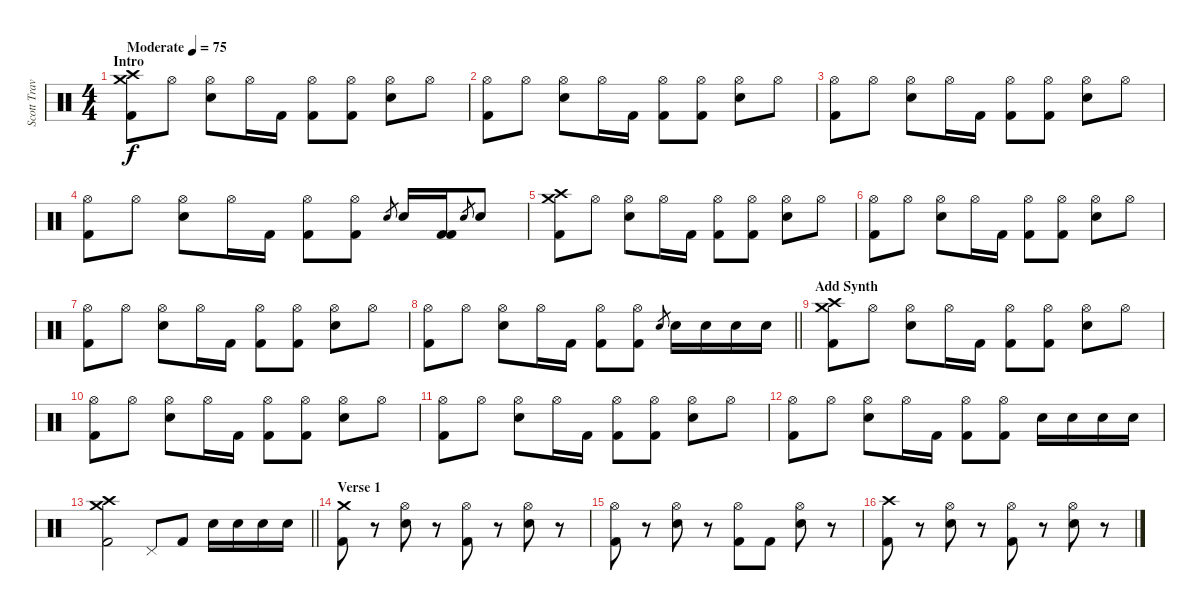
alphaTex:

\track ("Scott Travis" "Scott Trav") {instrument percussion}
\staff {score}
\articulation defaults
\ts (4 4)
\section ("" "Intro")
\tempo (75 "Moderate")
\clef neutral
\ks c
("Crash high (hit)" "Crash medium (hit)" "Kick (hit) 2").8{dy f} "Hi-Hat (open)".8 ("Hi-Hat (open)" "Snare (hit) 2").8 "Hi-Hat (open)".16 "Kick (hit) 2".16 ("Hi-Hat (open)" "Kick (hit) 2").8 ("Hi-Hat (open)" "Kick (hit) 2").8 ("Hi-Hat (open)" "Snare (hit) 2").8 "Hi-Hat (open)".8 |
("Hi-Hat (open)" "Kick (hit) 2").8 "Hi-Hat (open)".8 ("Hi-Hat (open)" "Snare (hit) 2").8 "Hi-Hat (open)".16 "Kick (hit) 2".16 ("Hi-Hat (open)" "Kick (hit) 2").8 ("Hi-Hat (open)" "Kick (hit) 2").8 ("Hi-Hat (open)" "Snare (hit) 2").8 "Hi-Hat (open)".8 |
("Hi-Hat (open)" "Kick (hit) 2").8 "Hi-Hat (open)".8 ("Hi-Hat (open)" "Snare (hit) 2").8 "Hi-Hat (open)".16 "Kick (hit) 2".16 ("Hi-Hat (open)" "Kick (hit) 2").8 ("Hi-Hat (open)" "Kick (hit) 2").8 ("Hi-Hat (open)" "Snare (hit) 2").8 "Hi-Hat (open)".8 |
("Hi-Hat (open)" "Kick (hit) 2").8 "Hi-Hat (open)".8 ("Hi-Hat (open)" "Snare (hit) 2").8 "Hi-Hat (open)".16 "Kick (hit) 2".16 ("Hi-Hat (open)" "Kick (hit) 2").8 ("Hi-Hat (open)" "Kick (hit) 2").8 "Snare (hit) 2".8{gr} "Snare (hit) 2".16 ("Kick (hit) 2" "Kick (hit) 2").16 "Snare (hit) 2".8{gr} "Snare (hit) 2".8 |
("Crash high (hit)" "Crash medium (hit)" "Kick (hit) 2").8 "Hi-Hat (open)".8 ("Hi-Hat (open)" "Snare (hit) 2").8 "Hi-Hat (open)".16 "Kick (hit) 2".16 ("Hi-Hat (open)" "Kick (hit) 2").8 ("Hi-Hat (open)" "Kick (hit) 2").8 ("Hi-Hat (open)" "Snare (hit) 2").8 "Hi-Hat (open)".8 |
("Hi-Hat (open)" "Kick (hit) 2").8 "Hi-Hat (open)".8 ("Hi-Hat (open)" "Snare (hit) 2").8 "Hi-Hat (open)".16 "Kick (hit) 2".16 ("Hi-Hat (open)" "Kick (hit) 2").8 ("Hi-Hat (open)" "Kick (hit) 2").8 ("Hi-Hat (open)" "Snare (hit) 2").8 "Hi-Hat (open)".8 |
("Hi-Hat (open)" "Kick (hit) 2").8 "Hi-Hat (open)".8 ("Hi-Hat (open)" "Snare (hit) 2").8 "Hi-Hat (open)".16 "Kick (hit) 2".16 ("Hi-Hat (open)" "Kick (hit) 2").8 ("Hi-Hat (open)" "Kick (hit) 2").8 ("Hi-Hat (open)" "Snare (hit) 2").8 "Hi-Hat (open)".8 |
\barLineRight lightlight
("Hi-Hat (open)" "Kick (hit) 2").8 "Hi-Hat (open)".8 ("Hi-Hat (open)" "Snare (hit) 2").8 "Hi-Hat (open)".16 "Kick (hit) 2".16 ("Hi-Hat (open)" "Kick (hit) 2").8 ("Hi-Hat (open)" "Kick (hit) 2").8 "Snare (hit) 2".8{gr} "Snare (hit) 2".16 "Snare (hit) 2".16 "Snare (hit) 2".16 "Snare (hit) 2".16 |
\section ("" "Add Synth")
("Crash high (hit)" "Crash medium (hit)" "Kick (hit) 2").8 "Hi-Hat (open)".8 ("Hi-Hat (open)" "Snare (hit) 2").8 "Hi-Hat (open)".16 "Kick (hit) 2".16 ("Hi-Hat (open)" "Kick (hit) 2").8 ("Hi-Hat (open)" "Kick (hit) 2").8 ("Hi-Hat (open)" "Snare (hit) 2").8 "Hi-Hat (open)".8 |
("Hi-Hat (open)" "Kick (hit) 2").8 "Hi-Hat (open)".8 ("Hi-Hat (open)" "Snare (hit) 2").8 "Hi-Hat (open)".16 "Kick (hit) 2".16 ("Hi-Hat (open)" "Kick (hit) 2").8 ("Hi-Hat (open)" "Kick (hit) 2").8 ("Hi-Hat (open)" "Snare (hit) 2").8 "Hi-Hat (open)".8 |
("Hi-Hat (open)" "Kick (hit) 2").8 "Hi-Hat (open)".8 ("Hi-Hat (open)" "Snare (hit) 2").8 "Hi-Hat (open)".16 "Kick (hit) 2".16 ("Hi-Hat (open)" "Kick (hit) 2").8 ("Hi-Hat (open)" "Kick (hit) 2").8 ("Hi-Hat (open)" "Snare (hit) 2").8 "Hi-Hat (open)".8 |
("Hi-Hat (open)" "Kick (hit) 2").8 "Hi-Hat (open)".8 ("Hi-Hat (open)" "Snare (hit) 2").8 "Hi-Hat (open)".16 "Kick (hit) 2".16 ("Hi-Hat (open)" "Kick (hit) 2").8 ("Hi-Hat (open)" "Kick (hit) 2").8 "Snare (hit) 2".16 "Snare (hit) 2".16 "Snare (hit) 2".16 "Snare (hit) 2".16 |
\barLineRight lightlight
("Crash high (hit)" "Crash medium (hit)" "Kick (hit) 2").2 "Pedal Hi-Hat (hit)".8 "Kick (hit) 2".8 "Snare (hit) 2".16 "Snare (hit) 2".16 "Snare (hit) 2".16 "Snare (hit) 2".16 |
\section ("" "Verse 1")
("Crash medium (hit)" "Kick (hit) 2").8 r.8 ("Hi-Hat (open)" "Snare (hit) 2").8 r.8 ("Hi-Hat (open)" "Kick (hit) 2").8 r.8 ("Hi-Hat (open)" "Snare (hit) 2").8 r.8 |
("Hi-Hat (open)" "Kick (hit) 2").8 r.8 ("Hi-Hat (open)" "Snare (hit) 2").8 r.8 ("Hi-Hat (open)" "Kick (hit) 2").8 "Kick (hit) 2".8 ("Hi-Hat (open)" "Snare (hit) 2").8 r.8 |
("Crash high (hit)" "Kick (hit) 2").8 r.8 ("Hi-Hat (open)" "Snare (hit) 2").8 r.8 ("Hi-Hat (open)" "Kick (hit) 2").8 r.8 ("Hi-Hat (open)" "Snare (hit) 2").8 r.8
